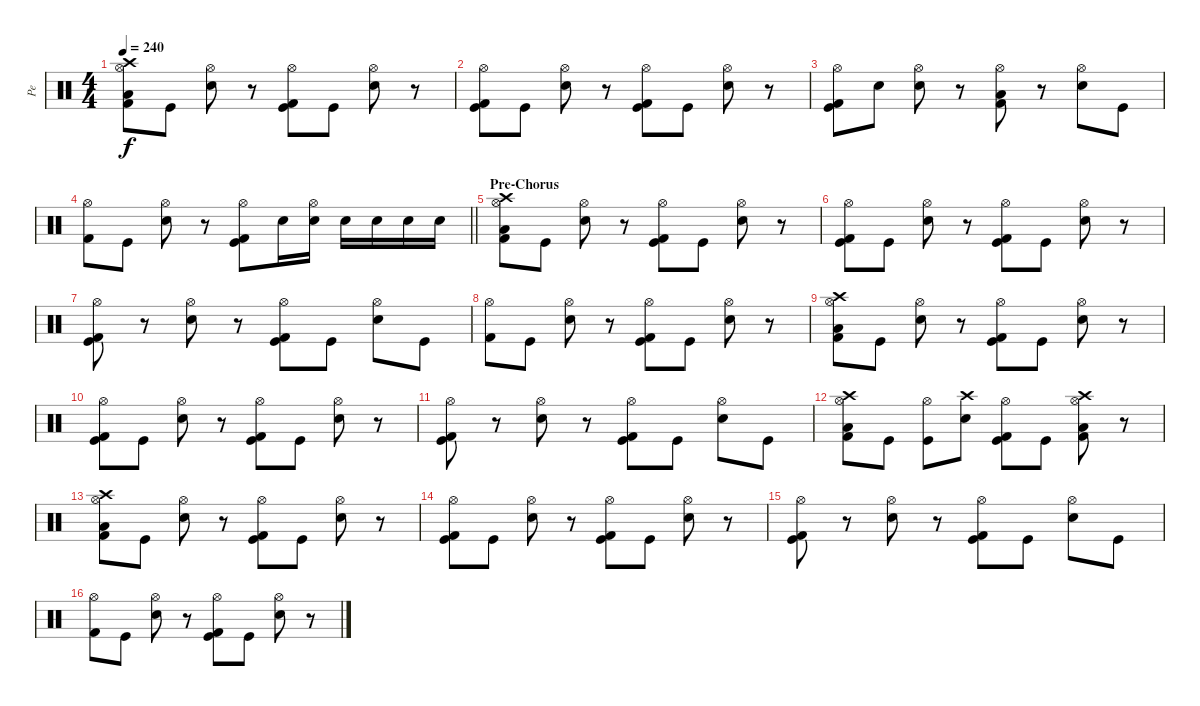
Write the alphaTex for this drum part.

\track ("Pe" "Pe") {instrument percussion}
\staff {score}
\articulation defaults
\ts (4 4)
\tempo 240
\clef neutral
\ks c
("Low Tom (hit)" "Hi-Hat (open)" "Kick (hit) 2" "Crash high (hit)").8{dy f} "Kick (hit)".8 ("Electric Snare (hit)" "Hi-Hat (open)").8 r.8 ("Kick (hit)" "Hi-Hat (open)" "Kick (hit) 2").8 "Kick (hit)".8 ("Electric Snare (hit)" "Hi-Hat (open)").8 r.8 |
("Kick (hit)" "Hi-Hat (open)" "Kick (hit) 2").8 "Kick (hit)".8 ("Electric Snare (hit)" "Hi-Hat (open)").8 r.8 ("Kick (hit)" "Hi-Hat (open)" "Kick (hit) 2").8 "Kick (hit)".8 ("Electric Snare (hit)" "Hi-Hat (open)").8 r.8 |
("Kick (hit)" "Hi-Hat (open)" "Kick (hit) 2").8 "Electric Snare (hit)".8 ("Electric Snare (hit)" "Hi-Hat (open)").8 r.8 ("Low Floor Tom (hit)" "Hi-Hat (open)" "Kick (hit) 2").8 r.8 ("Electric Snare (hit)" "Hi-Hat (open)").8 "Kick (hit)".8 |
\barLineRight lightlight
("Hi-Hat (open)" "Kick (hit) 2").8 "Kick (hit)".8 ("Electric Snare (hit)" "Hi-Hat (open)").8 r.8 ("Kick (hit)" "Hi-Hat (open)" "Kick (hit) 2").8 "Electric Snare (hit)".16 ("Electric Snare (hit)" "Hi-Hat (open)").16 "Electric Snare (hit)".16 "Electric Snare (hit)".16 "Electric Snare (hit)".16 "Electric Snare (hit)".16 |
\section ("" "Pre-Chorus")
("Low Tom (hit)" "Hi-Hat (open)" "Kick (hit) 2" "Crash high (hit)").8 "Kick (hit)".8 ("Electric Snare (hit)" "Hi-Hat (open)").8 r.8 ("Kick (hit)" "Hi-Hat (open)" "Kick (hit) 2").8 "Kick (hit)".8 ("Electric Snare (hit)" "Hi-Hat (open)").8 r.8 |
("Kick (hit)" "Hi-Hat (open)" "Kick (hit) 2").8 "Kick (hit)".8 ("Electric Snare (hit)" "Hi-Hat (open)").8 r.8 ("Kick (hit)" "Hi-Hat (open)" "Kick (hit) 2").8 "Kick (hit)".8 ("Electric Snare (hit)" "Hi-Hat (open)").8 r.8 |
("Kick (hit)" "Hi-Hat (open)" "Kick (hit) 2").8 r.8 ("Electric Snare (hit)" "Hi-Hat (open)").8 r.8 ("Kick (hit)" "Hi-Hat (open)" "Kick (hit) 2").8 "Kick (hit)".8 ("Electric Snare (hit)" "Hi-Hat (open)").8 "Kick (hit)".8 |
("Hi-Hat (open)" "Kick (hit) 2").8 "Kick (hit)".8 ("Electric Snare (hit)" "Hi-Hat (open)").8 r.8 ("Kick (hit)" "Hi-Hat (open)" "Kick (hit) 2").8 "Kick (hit)".8 ("Electric Snare (hit)" "Hi-Hat (open)").8 r.8 |
("Low Tom (hit)" "Hi-Hat (open)" "Kick (hit) 2" "Crash high (hit)").8 "Kick (hit)".8 ("Electric Snare (hit)" "Hi-Hat (open)").8 r.8 ("Kick (hit)" "Hi-Hat (open)" "Kick (hit) 2").8 "Kick (hit)".8 ("Electric Snare (hit)" "Hi-Hat (open)").8 r.8 |
("Kick (hit)" "Hi-Hat (open)" "Kick (hit) 2").8 "Kick (hit)".8 ("Electric Snare (hit)" "Hi-Hat (open)").8 r.8 ("Kick (hit)" "Hi-Hat (open)" "Kick (hit) 2").8 "Kick (hit)".8 ("Electric Snare (hit)" "Hi-Hat (open)").8 r.8 |
("Kick (hit)" "Hi-Hat (open)" "Kick (hit) 2").8 r.8 ("Electric Snare (hit)" "Hi-Hat (open)").8 r.8 ("Kick (hit)" "Hi-Hat (open)" "Kick (hit) 2").8 "Kick (hit)".8 ("Electric Snare (hit)" "Hi-Hat (open)").8 "Kick (hit)".8 |
("Low Tom (hit)" "Hi-Hat (open)" "Kick (hit) 2" "Crash high (hit)").8 "Kick (hit)".8 ("Kick (hit)" "Hi-Hat (open)").8 ("Crash high (hit)" "Electric Snare (hit)").8 ("Kick (hit)" "Hi-Hat (open)" "Kick (hit) 2").8 "Kick (hit)".8 ("Low Tom (hit)" "Hi-Hat (open)" "Kick (hit) 2" "Crash high (hit)").8 r.8 |
("Low Tom (hit)" "Hi-Hat (open)" "Kick (hit) 2" "Crash high (hit)").8 "Kick (hit)".8 ("Electric Snare (hit)" "Hi-Hat (open)").8 r.8 ("Kick (hit)" "Hi-Hat (open)" "Kick (hit) 2").8 "Kick (hit)".8 ("Electric Snare (hit)" "Hi-Hat (open)").8 r.8 |
("Kick (hit)" "Hi-Hat (open)" "Kick (hit) 2").8 "Kick (hit)".8 ("Electric Snare (hit)" "Hi-Hat (open)").8 r.8 ("Kick (hit)" "Hi-Hat (open)" "Kick (hit) 2").8 "Kick (hit)".8 ("Electric Snare (hit)" "Hi-Hat (open)").8 r.8 |
("Kick (hit)" "Hi-Hat (open)" "Kick (hit) 2").8 r.8 ("Electric Snare (hit)" "Hi-Hat (open)").8 r.8 ("Kick (hit)" "Hi-Hat (open)" "Kick (hit) 2").8 "Kick (hit)".8 ("Electric Snare (hit)" "Hi-Hat (open)").8 "Kick (hit)".8 |
("Hi-Hat (open)" "Kick (hit) 2").8 "Kick (hit)".8 ("Electric Snare (hit)" "Hi-Hat (open)").8 r.8 ("Kick (hit)" "Hi-Hat (open)" "Kick (hit) 2").8 "Kick (hit)".8 ("Electric Snare (hit)" "Hi-Hat (open)").8 r.8
